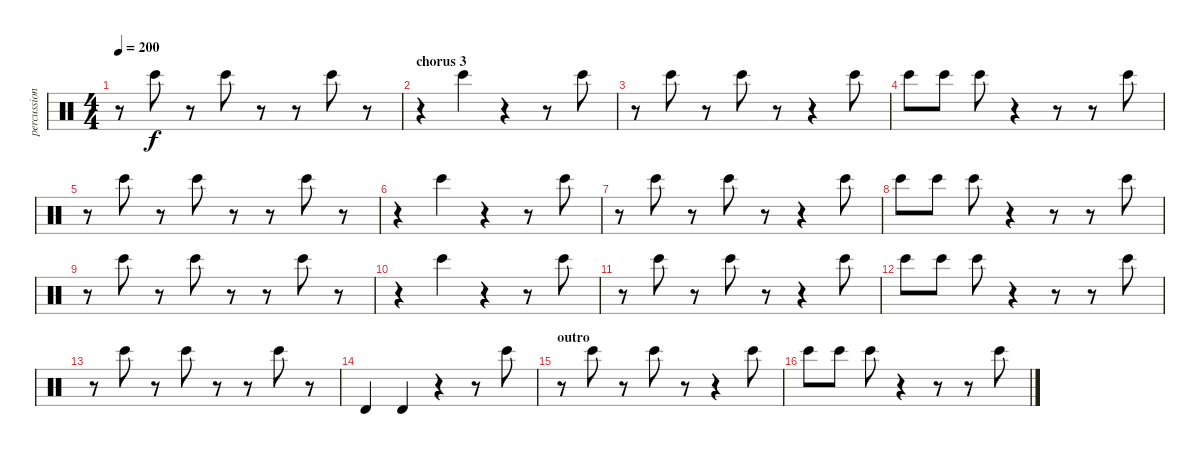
\track ("percussion" "percussion") {instrument percussion}
\staff {score}
\articulation defaults
\ts (4 4)
\tempo 200
\clef neutral
\ks c
r.8{dy f} "Bongo High (hit)".8 r.8 "Bongo High (hit)".8 r.8 r.8 "Bongo High (hit)".8 r.8 |
\section ("" "chorus 3")
r.4 "Bongo High (hit)".4 r.4 r.8 "Bongo High (hit)".8 |
r.8 "Bongo High (hit)".8 r.8 "Bongo High (hit)".8 r.8 r.4 "Bongo High (hit)".8 |
"Bongo High (hit)".8 "Bongo High (hit)".8 "Bongo High (hit)".8 r.4 r.8 r.8 "Bongo High (hit)".8 |
r.8 "Bongo High (hit)".8 r.8 "Bongo High (hit)".8 r.8 r.8 "Bongo High (hit)".8 r.8 |
r.4 "Bongo High (hit)".4 r.4 r.8 "Bongo High (hit)".8 |
r.8 "Bongo High (hit)".8 r.8 "Bongo High (hit)".8 r.8 r.4 "Bongo High (hit)".8 |
"Bongo High (hit)".8 "Bongo High (hit)".8 "Bongo High (hit)".8 r.4 r.8 r.8 "Bongo High (hit)".8 |
r.8 "Bongo High (hit)".8 r.8 "Bongo High (hit)".8 r.8 r.8 "Bongo High (hit)".8 r.8 |
r.4 "Bongo High (hit)".4 r.4 r.8 "Bongo High (hit)".8 |
r.8 "Bongo High (hit)".8 r.8 "Bongo High (hit)".8 r.8 r.4 "Bongo High (hit)".8 |
"Bongo High (hit)".8 "Bongo High (hit)".8 "Bongo High (hit)".8 r.4 r.8 r.8 "Bongo High (hit)".8 |
r.8 "Bongo High (hit)".8 r.8 "Bongo High (hit)".8 r.8 r.8 "Bongo High (hit)".8 r.8 |
"Timbale high (hit)".4{volume 16} "Timbale high (hit)".4 r.4{volume 13} r.8 "Bongo High (hit)".8 |
\section ("" "outro")
r.8 "Bongo High (hit)".8 r.8 "Bongo High (hit)".8 r.8 r.4 "Bongo High (hit)".8 |
"Bongo High (hit)".8 "Bongo High (hit)".8 "Bongo High (hit)".8 r.4 r.8 r.8 "Bongo High (hit)".8
